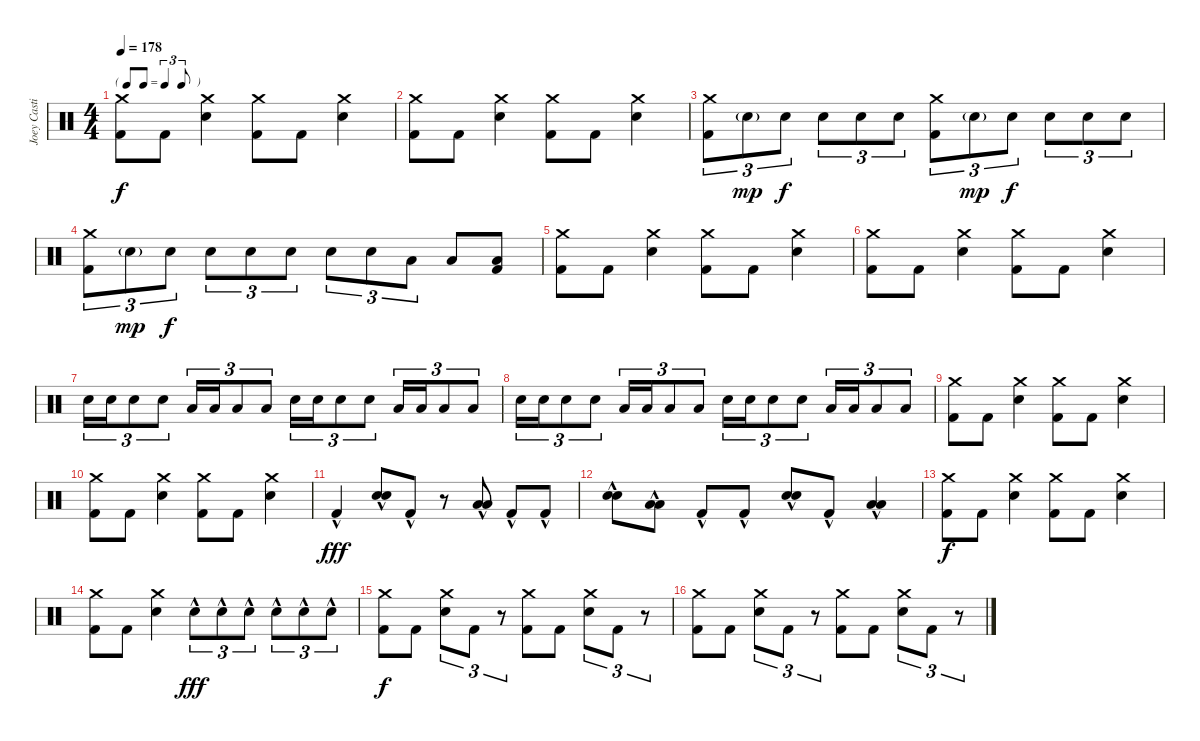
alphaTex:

\track ("Joey Castillo" "Joey Casti") {instrument percussion}
\staff {score}
\articulation defaults
\ts (4 4)
\tf triplet8th
\tempo 178
\clef neutral
\ks c
("Crash medium (hit)" "Kick (hit) 2").8{dy f} "Kick (hit) 2".8 ("Crash medium (hit)" "Snare (hit) 2").4 ("Crash medium (hit)" "Kick (hit) 2").8 "Kick (hit) 2".8 ("Crash medium (hit)" "Snare (hit) 2").4 |
("Crash medium (hit)" "Kick (hit) 2").8 "Kick (hit) 2".8 ("Crash medium (hit)" "Snare (hit) 2").4 ("Crash medium (hit)" "Kick (hit) 2").8 "Kick (hit) 2".8 ("Crash medium (hit)" "Snare (hit) 2").4 |
("Crash medium (hit)" "Kick (hit) 2").8{tu (3 2)} "Snare (hit) 2"{g}.8{tu (3 2) dy mp} "Snare (hit) 2".8{tu (3 2) dy f} "Snare (hit) 2".8{tu (3 2)} "Snare (hit) 2".8{tu (3 2)} "Snare (hit) 2".8{tu (3 2)} ("Crash medium (hit)" "Kick (hit) 2").8{tu (3 2)} "Snare (hit) 2"{g}.8{tu (3 2) dy mp} "Snare (hit) 2".8{tu (3 2) dy f} "Snare (hit) 2".8{tu (3 2)} "Snare (hit) 2".8{tu (3 2)} "Snare (hit) 2".8{tu (3 2)} |
("Crash medium (hit)" "Kick (hit) 2").8{tu (3 2)} "Snare (hit) 2"{g}.8{tu (3 2) dy mp} "Snare (hit) 2".8{tu (3 2) dy f} "Snare (hit) 2".8{tu (3 2)} "Snare (hit) 2".8{tu (3 2)} "Snare (hit) 2".8{tu (3 2)} "Snare (hit) 2".8{tu (3 2)} "Snare (hit) 2".8{tu (3 2)} "Low Tom (hit)".8{tu (3 2)} "Low Tom (hit)".8 ("Low Floor Tom (hit)" "Kick (hit) 2").8 |
("Crash medium (hit)" "Kick (hit) 2").8 "Kick (hit) 2".8 ("Crash medium (hit)" "Snare (hit) 2").4 ("Crash medium (hit)" "Kick (hit) 2").8 "Kick (hit) 2".8 ("Crash medium (hit)" "Snare (hit) 2").4 |
("Crash medium (hit)" "Kick (hit) 2").8 "Kick (hit) 2".8 ("Crash medium (hit)" "Snare (hit) 2").4 ("Crash medium (hit)" "Kick (hit) 2").8 "Kick (hit) 2".8 ("Crash medium (hit)" "Snare (hit) 2").4 |
"Snare (hit) 2".16{tu (3 2)} "Snare (hit) 2".16{tu (3 2)} "Snare (hit) 2".8{tu (3 2)} "Snare (hit) 2".8{tu (3 2)} "Low Tom (hit)".16{tu (3 2)} "Low Tom (hit)".16{tu (3 2)} "Low Tom (hit)".8{tu (3 2)} "Low Tom (hit)".8{tu (3 2)} "Snare (hit) 2".16{tu (3 2)} "Snare (hit) 2".16{tu (3 2)} "Snare (hit) 2".8{tu (3 2)} "Snare (hit) 2".8{tu (3 2)} "Low Tom (hit)".16{tu (3 2)} "Low Tom (hit)".16{tu (3 2)} "Low Tom (hit)".8{tu (3 2)} "Low Tom (hit)".8{tu (3 2)} |
"Snare (hit) 2".16{tu (3 2)} "Snare (hit) 2".16{tu (3 2)} "Snare (hit) 2".8{tu (3 2)} "Snare (hit) 2".8{tu (3 2)} "Low Tom (hit)".16{tu (3 2)} "Low Tom (hit)".16{tu (3 2)} "Low Tom (hit)".8{tu (3 2)} "Low Tom (hit)".8{tu (3 2)} "Snare (hit) 2".16{tu (3 2)} "Snare (hit) 2".16{tu (3 2)} "Snare (hit) 2".8{tu (3 2)} "Snare (hit) 2".8{tu (3 2)} "Low Tom (hit)".16{tu (3 2)} "Low Tom (hit)".16{tu (3 2)} "Low Tom (hit)".8{tu (3 2)} "Low Tom (hit)".8{tu (3 2)} |
("Crash medium (hit)" "Kick (hit) 2").8 "Kick (hit) 2".8 ("Crash medium (hit)" "Snare (hit) 2").4 ("Crash medium (hit)" "Kick (hit) 2").8 "Kick (hit) 2".8 ("Crash medium (hit)" "Snare (hit) 2").4 |
("Crash medium (hit)" "Kick (hit) 2").8 "Kick (hit) 2".8 ("Crash medium (hit)" "Snare (hit) 2").4 ("Crash medium (hit)" "Kick (hit) 2").8 "Kick (hit) 2".8 ("Crash medium (hit)" "Snare (hit) 2").4 |
"Kick (hit) 2"{hac}.4{dy fff} ("Snare (hit) 2"{hac} "Snare (hit) 2"{hac}).8{bd 120} "Kick (hit) 2"{hac}.8 r.8 ("Low Tom (hit)"{hac} "Low Floor Tom (hit)"{hac}).8 "Kick (hit) 2"{hac}.8 "Kick (hit) 2"{hac}.8 |
("Snare (hit) 2"{hac} "Snare (hit) 2"{hac}).8{bd 120} ("Low Tom (hit)"{hac} "Low Floor Tom (hit)"{hac}).8 "Kick (hit) 2"{hac}.8 "Kick (hit) 2"{hac}.8 ("Snare (hit) 2"{hac} "Snare (hit) 2"{hac}).8{bd 120} "Kick (hit) 2"{hac}.8 ("Low Tom (hit)"{hac} "Low Floor Tom (hit)"{hac}).4 |
("Crash medium (hit)" "Kick (hit) 2").8{dy f} "Kick (hit) 2".8 ("Crash medium (hit)" "Snare (hit) 2").4 ("Crash medium (hit)" "Kick (hit) 2").8 "Kick (hit) 2".8 ("Crash medium (hit)" "Snare (hit) 2").4 |
("Crash medium (hit)" "Kick (hit) 2").8 "Kick (hit) 2".8 ("Crash medium (hit)" "Snare (hit) 2").4 "Snare (hit) 2"{hac}.8{tu (3 2) dy fff} "Snare (hit) 2"{hac}.8{tu (3 2)} "Snare (hit) 2"{hac}.8{tu (3 2)} "Snare (hit) 2"{hac}.8{tu (3 2)} "Snare (hit) 2"{hac}.8{tu (3 2)} "Snare (hit) 2"{hac}.8{tu (3 2)} |
("Crash medium (hit)" "Kick (hit) 2").8{dy f} "Kick (hit) 2".8 ("Crash medium (hit)" "Snare (hit) 2").8{tu (3 2)} "Kick (hit) 2".8{tu (3 2)} r.8{tu (3 2)} ("Crash medium (hit)" "Kick (hit) 2").8 "Kick (hit) 2".8 ("Crash medium (hit)" "Snare (hit) 2").8{tu (3 2)} "Kick (hit) 2".8{tu (3 2)} r.8{tu (3 2)} |
("Crash medium (hit)" "Kick (hit) 2").8 "Kick (hit) 2".8 ("Crash medium (hit)" "Snare (hit) 2").8{tu (3 2)} "Kick (hit) 2".8{tu (3 2)} r.8{tu (3 2)} ("Crash medium (hit)" "Kick (hit) 2").8 "Kick (hit) 2".8 ("Crash medium (hit)" "Snare (hit) 2").8{tu (3 2)} "Kick (hit) 2".8{tu (3 2)} r.8{tu (3 2)}
